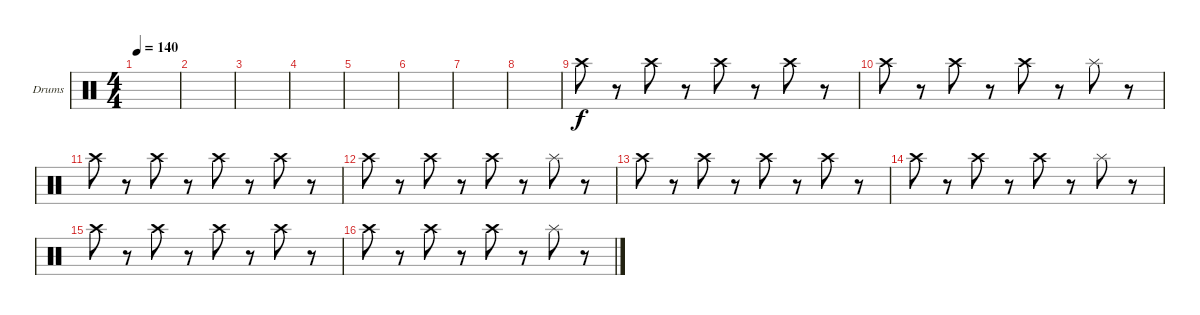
\defaultSystemsLayout 4
\bracketExtendMode groupsimilarinstruments
\firstSystemTrackNameOrientation horizontal
\otherSystemsTrackNameOrientation horizontal
\track ("Drumkit" "Drums") {instrument percussion}
\staff {score}
\articulation defaults
\ts (4 4)
\tempo 140
\clef neutral
\scale
0.474178
\ks c
|
\scale
0.262911 |
\scale
0.262911 |
\scale
0.333333 |
\scale
0.333333 |
\scale
0.333333 |
\scale
0.333333 |
\scale
0.333333 |
"Crash high (hit)".8 r.8 "Crash high (hit)".8 r.8 "Crash high (hit)".8 r.8 "Crash high (hit)".8 r.8 |
"Crash high (hit)".8 r.8 "Crash high (hit)".8 r.8 "Crash high (hit)".8 r.8 "Splash (hit)".8 r.8 |
"Crash high (hit)".8 r.8 "Crash high (hit)".8 r.8 "Crash high (hit)".8 r.8 "Crash high (hit)".8 r.8 |
"Crash high (hit)".8 r.8 "Crash high (hit)".8 r.8 "Crash high (hit)".8 r.8 "Splash (hit)".8 r.8 |
"Crash high (hit)".8 r.8 "Crash high (hit)".8 r.8 "Crash high (hit)".8 r.8 "Crash high (hit)".8 r.8 |
"Crash high (hit)".8 r.8 "Crash high (hit)".8 r.8 "Crash high (hit)".8 r.8 "Splash (hit)".8 r.8 |
"Crash high (hit)".8 r.8 "Crash high (hit)".8 r.8 "Crash high (hit)".8 r.8 "Crash high (hit)".8 r.8 |
"Crash high (hit)".8 r.8 "Crash high (hit)".8 r.8 "Crash high (hit)".8 r.8 "Splash (hit)".8 r.8
